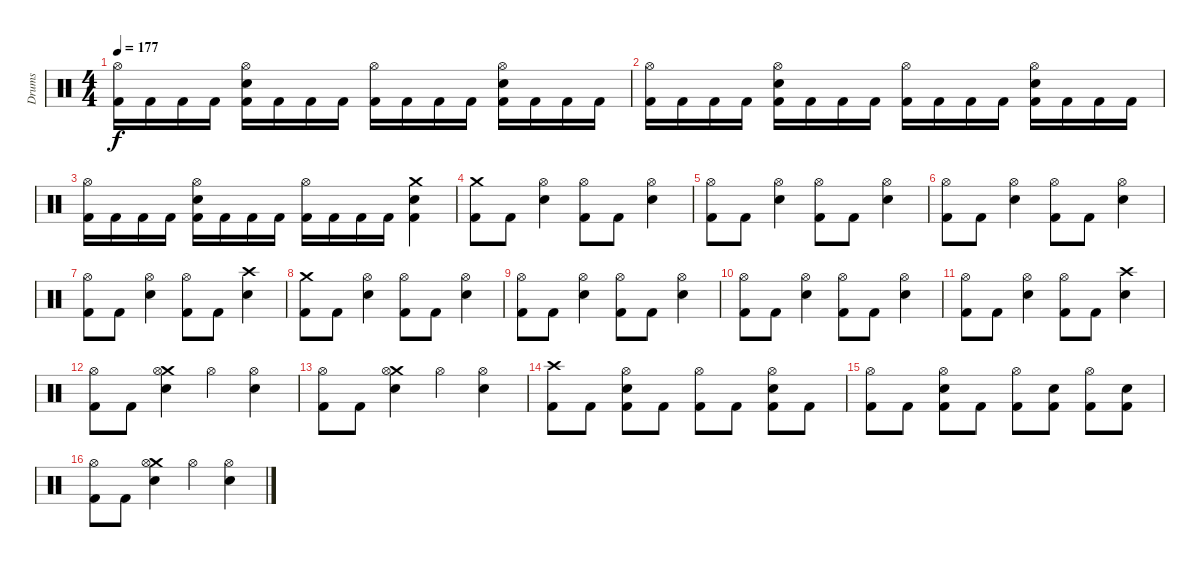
\track ("Drums" "Drums") {instrument percussion}
\staff {score}
\articulation defaults
\ts (4 4)
\tempo 177
\clef neutral
\ks c
("Hi-Hat (open)" "Kick (hit) 2").16{dy f} "Kick (hit) 2".16 "Kick (hit) 2".16 "Kick (hit) 2".16 ("Hi-Hat (open)" "Snare (hit) 2" "Kick (hit) 2").16 "Kick (hit) 2".16 "Kick (hit) 2".16 "Kick (hit) 2".16 ("Hi-Hat (open)" "Kick (hit) 2").16 "Kick (hit) 2".16 "Kick (hit) 2".16 "Kick (hit) 2".16 ("Hi-Hat (open)" "Snare (hit) 2" "Kick (hit) 2").16 "Kick (hit) 2".16 "Kick (hit) 2".16 "Kick (hit) 2".16 |
("Hi-Hat (open)" "Kick (hit) 2").16 "Kick (hit) 2".16 "Kick (hit) 2".16 "Kick (hit) 2".16 ("Hi-Hat (open)" "Snare (hit) 2" "Kick (hit) 2").16 "Kick (hit) 2".16 "Kick (hit) 2".16 "Kick (hit) 2".16 ("Hi-Hat (open)" "Kick (hit) 2").16 "Kick (hit) 2".16 "Kick (hit) 2".16 "Kick (hit) 2".16 ("Hi-Hat (open)" "Snare (hit) 2" "Kick (hit) 2").16 "Kick (hit) 2".16 "Kick (hit) 2".16 "Kick (hit) 2".16 |
("Hi-Hat (open)" "Kick (hit) 2").16 "Kick (hit) 2".16 "Kick (hit) 2".16 "Kick (hit) 2".16 ("Hi-Hat (open)" "Snare (hit) 2" "Kick (hit) 2").16 "Kick (hit) 2".16 "Kick (hit) 2".16 "Kick (hit) 2".16 ("Hi-Hat (open)" "Kick (hit) 2").16 "Kick (hit) 2".16 "Kick (hit) 2".16 "Kick (hit) 2".16 ("Crash medium (hit)" "Snare (hit) 2" "Kick (hit) 2").4 |
("Crash medium (hit)" "Kick (hit) 2").8 "Kick (hit) 2".8 ("Hi-Hat (open)" "Snare (hit) 2").4 ("Hi-Hat (open)" "Kick (hit) 2").8 "Kick (hit) 2".8 ("Hi-Hat (open)" "Snare (hit) 2").4 |
("Hi-Hat (open)" "Kick (hit) 2").8 "Kick (hit) 2".8 ("Hi-Hat (open)" "Snare (hit) 2").4 ("Hi-Hat (open)" "Kick (hit) 2").8 "Kick (hit) 2".8 ("Hi-Hat (open)" "Snare (hit) 2").4 |
("Hi-Hat (open)" "Kick (hit) 2").8 "Kick (hit) 2".8 ("Hi-Hat (open)" "Snare (hit) 2").4 ("Hi-Hat (open)" "Kick (hit) 2").8 "Kick (hit) 2".8 ("Hi-Hat (open)" "Snare (hit) 2").4 |
("Hi-Hat (open)" "Kick (hit) 2").8 "Kick (hit) 2".8 ("Hi-Hat (open)" "Snare (hit) 2").4 ("Hi-Hat (open)" "Kick (hit) 2").8 "Kick (hit) 2".8 ("Crash high (hit)" "Snare (hit) 2").4 |
("Crash medium (hit)" "Kick (hit) 2").8 "Kick (hit) 2".8 ("Hi-Hat (open)" "Snare (hit) 2").4 ("Hi-Hat (open)" "Kick (hit) 2").8 "Kick (hit) 2".8 ("Hi-Hat (open)" "Snare (hit) 2").4 |
("Hi-Hat (open)" "Kick (hit) 2").8 "Kick (hit) 2".8 ("Hi-Hat (open)" "Snare (hit) 2").4 ("Hi-Hat (open)" "Kick (hit) 2").8 "Kick (hit) 2".8 ("Hi-Hat (open)" "Snare (hit) 2").4 |
("Hi-Hat (open)" "Kick (hit) 2").8 "Kick (hit) 2".8 ("Hi-Hat (open)" "Snare (hit) 2").4 ("Hi-Hat (open)" "Kick (hit) 2").8 "Kick (hit) 2".8 ("Hi-Hat (open)" "Snare (hit) 2").4 |
("Hi-Hat (open)" "Kick (hit) 2").8 "Kick (hit) 2".8 ("Hi-Hat (open)" "Snare (hit) 2").4 ("Hi-Hat (open)" "Kick (hit) 2").8 "Kick (hit) 2".8 ("Crash high (hit)" "Snare (hit) 2").4 |
("Hi-Hat (open)" "Kick (hit) 2").8 "Kick (hit) 2".8 ("Crash medium (hit)" "Hi-Hat (open)" "Snare (hit) 2").4 "Hi-Hat (open)".4 ("Hi-Hat (open)" "Snare (hit) 2").4 |
("Hi-Hat (open)" "Kick (hit) 2").8 "Kick (hit) 2".8 ("Crash medium (hit)" "Hi-Hat (open)" "Snare (hit) 2").4 "Hi-Hat (open)".4 ("Hi-Hat (open)" "Snare (hit) 2").4 |
("Crash high (hit)" "Kick (hit) 2").8 "Kick (hit) 2".8 ("Hi-Hat (open)" "Snare (hit) 2" "Kick (hit) 2").8 "Kick (hit) 2".8 ("Hi-Hat (open)" "Kick (hit) 2").8 "Kick (hit) 2".8 ("Hi-Hat (open)" "Snare (hit) 2" "Kick (hit) 2").8 "Kick (hit) 2".8 |
("Hi-Hat (open)" "Kick (hit) 2").8 "Kick (hit) 2".8 ("Hi-Hat (open)" "Snare (hit) 2" "Kick (hit) 2").8 "Kick (hit) 2".8 ("Hi-Hat (open)" "Kick (hit) 2").8 ("Snare (hit) 2" "Kick (hit) 2").8 ("Hi-Hat (open)" "Kick (hit) 2").8 ("Snare (hit) 2" "Kick (hit) 2").8 |
("Hi-Hat (open)" "Kick (hit) 2").8 "Kick (hit) 2".8 ("Crash medium (hit)" "Hi-Hat (open)" "Snare (hit) 2").4 "Hi-Hat (open)".4 ("Hi-Hat (open)" "Snare (hit) 2").4
